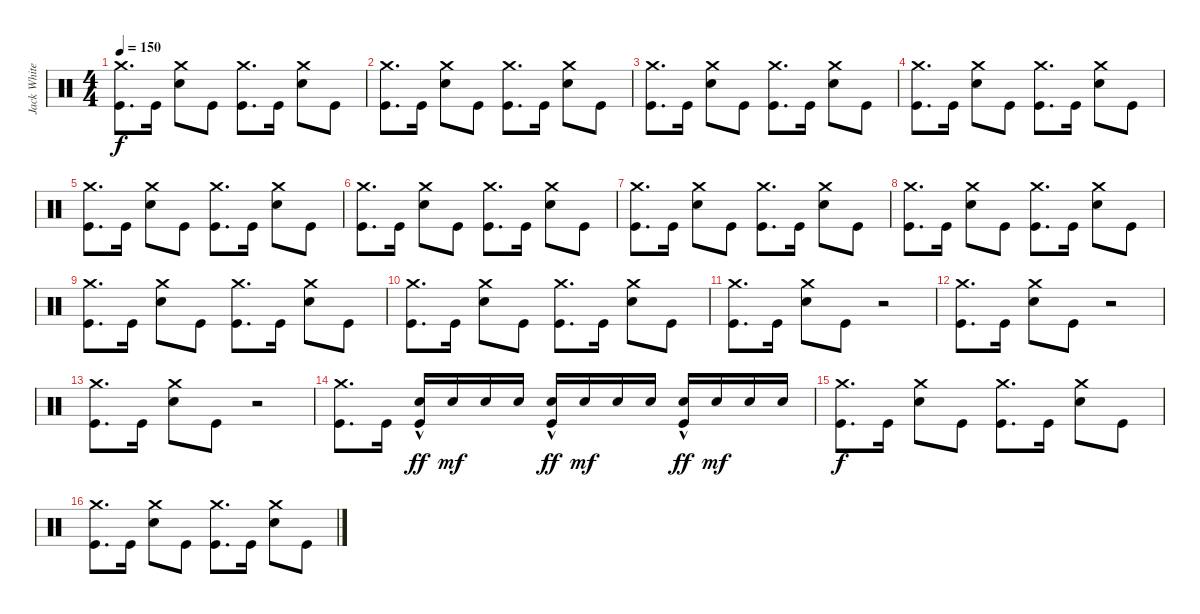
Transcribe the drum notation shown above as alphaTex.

\track ("Jack White" "Jack White") {instrument percussion}
\staff
\articulation defaults
\ts (4 4)
\tempo 150
\clef neutral
\ks c
("Crash medium (hit)" "Kick (hit)").8{d dy f} "Kick (hit)".16 ("Crash medium (hit)" "Snare (hit) 2").8 "Kick (hit)".8 ("Crash medium (hit)" "Kick (hit)").8{d} "Kick (hit)".16 ("Crash medium (hit)" "Snare (hit) 2").8 "Kick (hit)".8 |
("Crash medium (hit)" "Kick (hit)").8{d} "Kick (hit)".16 ("Crash medium (hit)" "Snare (hit) 2").8 "Kick (hit)".8 ("Crash medium (hit)" "Kick (hit)").8{d} "Kick (hit)".16 ("Crash medium (hit)" "Snare (hit) 2").8 "Kick (hit)".8 |
("Crash medium (hit)" "Kick (hit)").8{d} "Kick (hit)".16 ("Crash medium (hit)" "Snare (hit) 2").8 "Kick (hit)".8 ("Crash medium (hit)" "Kick (hit)").8{d} "Kick (hit)".16 ("Crash medium (hit)" "Snare (hit) 2").8 "Kick (hit)".8 |
("Crash medium (hit)" "Kick (hit)").8{d} "Kick (hit)".16 ("Crash medium (hit)" "Snare (hit) 2").8 "Kick (hit)".8 ("Crash medium (hit)" "Kick (hit)").8{d} "Kick (hit)".16 ("Crash medium (hit)" "Snare (hit) 2").8 "Kick (hit)".8 |
("Crash medium (hit)" "Kick (hit)").8{d} "Kick (hit)".16 ("Crash medium (hit)" "Snare (hit) 2").8 "Kick (hit)".8 ("Crash medium (hit)" "Kick (hit)").8{d} "Kick (hit)".16 ("Crash medium (hit)" "Snare (hit) 2").8 "Kick (hit)".8 |
("Crash medium (hit)" "Kick (hit)").8{d} "Kick (hit)".16 ("Crash medium (hit)" "Snare (hit) 2").8 "Kick (hit)".8 ("Crash medium (hit)" "Kick (hit)").8{d} "Kick (hit)".16 ("Crash medium (hit)" "Snare (hit) 2").8 "Kick (hit)".8 |
("Crash medium (hit)" "Kick (hit)").8{d} "Kick (hit)".16 ("Crash medium (hit)" "Snare (hit) 2").8 "Kick (hit)".8 ("Crash medium (hit)" "Kick (hit)").8{d} "Kick (hit)".16 ("Crash medium (hit)" "Snare (hit) 2").8 "Kick (hit)".8 |
("Crash medium (hit)" "Kick (hit)").8{d} "Kick (hit)".16 ("Crash medium (hit)" "Snare (hit) 2").8 "Kick (hit)".8 ("Crash medium (hit)" "Kick (hit)").8{d} "Kick (hit)".16 ("Crash medium (hit)" "Snare (hit) 2").8 "Kick (hit)".8 |
("Crash medium (hit)" "Kick (hit)").8{d} "Kick (hit)".16 ("Crash medium (hit)" "Snare (hit) 2").8 "Kick (hit)".8 ("Crash medium (hit)" "Kick (hit)").8{d} "Kick (hit)".16 ("Crash medium (hit)" "Snare (hit) 2").8 "Kick (hit)".8 |
("Crash medium (hit)" "Kick (hit)").8{d} "Kick (hit)".16 ("Crash medium (hit)" "Snare (hit) 2").8 "Kick (hit)".8 ("Crash medium (hit)" "Kick (hit)").8{d} "Kick (hit)".16 ("Crash medium (hit)" "Snare (hit) 2").8 "Kick (hit)".8 |
("Crash medium (hit)" "Kick (hit)").8{d} "Kick (hit)".16 ("Crash medium (hit)" "Snare (hit) 2").8 "Kick (hit)".8 r.2 |
("Crash medium (hit)" "Kick (hit)").8{d} "Kick (hit)".16 ("Crash medium (hit)" "Snare (hit) 2").8 "Kick (hit)".8 r.2 |
("Crash medium (hit)" "Kick (hit)").8{d} "Kick (hit)".16 ("Crash medium (hit)" "Snare (hit) 2").8 "Kick (hit)".8 r.2 |
("Crash medium (hit)" "Kick (hit)").8{d} "Kick (hit)".16 ("Snare (hit) 2"{hac} "Kick (hit)").16{dy ff} "Snare (hit) 2".16{dy mf} "Snare (hit) 2".16 "Snare (hit) 2".16 ("Snare (hit) 2"{hac} "Kick (hit)").16{dy ff} "Snare (hit) 2".16{dy mf} "Snare (hit) 2".16 "Snare (hit) 2".16 ("Snare (hit) 2"{hac} "Kick (hit)").16{dy ff} "Snare (hit) 2".16{dy mf} "Snare (hit) 2".16 "Snare (hit) 2".16 |
("Crash medium (hit)" "Kick (hit)").8{d dy f} "Kick (hit)".16 ("Crash medium (hit)" "Snare (hit) 2").8 "Kick (hit)".8 ("Crash medium (hit)" "Kick (hit)").8{d} "Kick (hit)".16 ("Crash medium (hit)" "Snare (hit) 2").8 "Kick (hit)".8 |
("Crash medium (hit)" "Kick (hit)").8{d} "Kick (hit)".16 ("Crash medium (hit)" "Snare (hit) 2").8 "Kick (hit)".8 ("Crash medium (hit)" "Kick (hit)").8{d} "Kick (hit)".16 ("Crash medium (hit)" "Snare (hit) 2").8 "Kick (hit)".8
